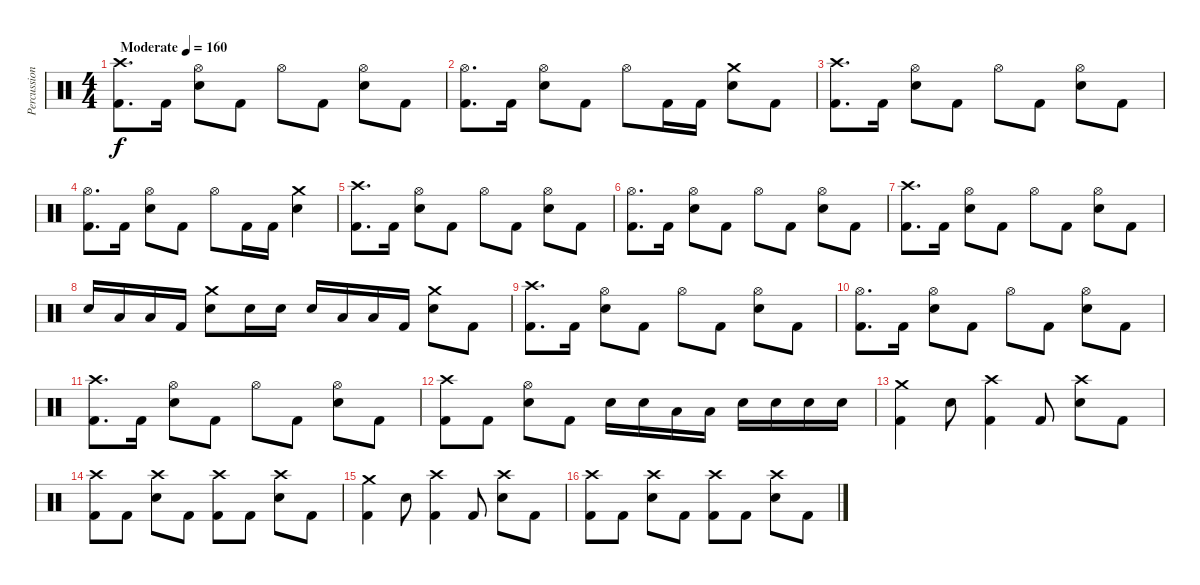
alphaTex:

\track ("Percussion" "Percussion") {instrument percussion}
\staff {score}
\articulation defaults
\ts (4 4)
\tempo (160 "Moderate")
\clef neutral
\ks c
("Crash high (hit)" "Kick (hit) 2").8{d dy f volume 8} "Kick (hit) 2".16 ("Hi-Hat (open)" "Electric Snare (hit)").8 "Kick (hit) 2".8 "Hi-Hat (open)".8 "Kick (hit) 2".8 ("Hi-Hat (open)" "Electric Snare (hit)").8 "Kick (hit) 2".8 |
("Hi-Hat (open)" "Kick (hit) 2").8{d} "Kick (hit) 2".16 ("Hi-Hat (open)" "Electric Snare (hit)").8 "Kick (hit) 2".8 "Hi-Hat (open)".8 "Kick (hit) 2".16 "Kick (hit) 2".16 ("Crash medium (hit)" "Electric Snare (hit)").8 "Kick (hit) 2".8 |
("Crash high (hit)" "Kick (hit) 2").8{d} "Kick (hit) 2".16 ("Hi-Hat (open)" "Electric Snare (hit)").8 "Kick (hit) 2".8 "Hi-Hat (open)".8 "Kick (hit) 2".8 ("Hi-Hat (open)" "Electric Snare (hit)").8 "Kick (hit) 2".8 |
("Hi-Hat (open)" "Kick (hit) 2").8{d} "Kick (hit) 2".16 ("Hi-Hat (open)" "Electric Snare (hit)").8 "Kick (hit) 2".8 "Hi-Hat (open)".8 "Kick (hit) 2".16 "Kick (hit) 2".16 ("Crash medium (hit)" "Electric Snare (hit)").4 |
("Crash high (hit)" "Kick (hit) 2").8{d volume 13} "Kick (hit) 2".16 ("Hi-Hat (open)" "Electric Snare (hit)").8 "Kick (hit) 2".8 "Hi-Hat (open)".8 "Kick (hit) 2".8 ("Hi-Hat (open)" "Electric Snare (hit)").8 "Kick (hit) 2".8 |
("Hi-Hat (open)" "Kick (hit) 2").8{d} "Kick (hit) 2".16 ("Hi-Hat (open)" "Electric Snare (hit)").8 "Kick (hit) 2".8 "Hi-Hat (open)".8 "Kick (hit) 2".8 ("Hi-Hat (open)" "Electric Snare (hit)").8 "Kick (hit) 2".8 |
("Crash high (hit)" "Kick (hit) 2").8{d} "Kick (hit) 2".16 ("Hi-Hat (open)" "Electric Snare (hit)").8 "Kick (hit) 2".8 "Hi-Hat (open)".8 "Kick (hit) 2".8 ("Hi-Hat (open)" "Electric Snare (hit)").8 "Kick (hit) 2".8 |
"Electric Snare (hit)".16 "Low Tom (hit)".16 "Low Floor Tom (hit)".16 "Kick (hit) 2".16 ("Crash medium (hit)" "Electric Snare (hit)").8 "Electric Snare (hit)".16 "Electric Snare (hit)".16 "Electric Snare (hit)".16 "Low Tom (hit)".16 "Low Floor Tom (hit)".16 "Kick (hit) 2".16 ("Crash medium (hit)" "Electric Snare (hit)").8 "Kick (hit) 2".8 |
("Crash high (hit)" "Kick (hit) 2").8{d} "Kick (hit) 2".16 ("Hi-Hat (open)" "Electric Snare (hit)").8 "Kick (hit) 2".8 "Hi-Hat (open)".8 "Kick (hit) 2".8 ("Hi-Hat (open)" "Electric Snare (hit)").8 "Kick (hit) 2".8 |
("Hi-Hat (open)" "Kick (hit) 2").8{d} "Kick (hit) 2".16 ("Hi-Hat (open)" "Electric Snare (hit)").8 "Kick (hit) 2".8 "Hi-Hat (open)".8 "Kick (hit) 2".8 ("Hi-Hat (open)" "Electric Snare (hit)").8 "Kick (hit) 2".8 |
("Crash high (hit)" "Kick (hit) 2").8{d} "Kick (hit) 2".16 ("Hi-Hat (open)" "Electric Snare (hit)").8 "Kick (hit) 2".8 "Hi-Hat (open)".8 "Kick (hit) 2".8 ("Hi-Hat (open)" "Electric Snare (hit)").8 "Kick (hit) 2".8 |
("Crash high (hit)" "Kick (hit) 2").8 "Kick (hit) 2".8 ("Hi-Hat (open)" "Electric Snare (hit)").8 "Kick (hit) 2".8 "Electric Snare (hit)".16 "Electric Snare (hit)".16 "Low Tom (hit)".16 "Low Floor Tom (hit)".16 "Electric Snare (hit)".16 "Electric Snare (hit)".16 "Electric Snare (hit)".16 "Electric Snare (hit)".16 |
("Crash medium (hit)" "Kick (hit) 2").4 "Electric Snare (hit)".8 ("Crash high (hit)" "Kick (hit) 2").4 "Kick (hit) 2".8 ("Crash high (hit)" "Electric Snare (hit)").8 "Kick (hit) 2".8 |
("Crash high (hit)" "Kick (hit) 2").8 "Kick (hit) 2".8 ("Crash high (hit)" "Electric Snare (hit)").8 "Kick (hit) 2".8 ("Crash high (hit)" "Kick (hit) 2").8 "Kick (hit) 2".8 ("Crash high (hit)" "Electric Snare (hit)").8 "Kick (hit) 2".8 |
("Crash medium (hit)" "Kick (hit) 2").4 "Electric Snare (hit)".8 ("Crash high (hit)" "Kick (hit) 2").4 "Kick (hit) 2".8 ("Crash high (hit)" "Electric Snare (hit)").8 "Kick (hit) 2".8 |
("Crash high (hit)" "Kick (hit) 2").8 "Kick (hit) 2".8 ("Crash high (hit)" "Electric Snare (hit)").8 "Kick (hit) 2".8 ("Crash high (hit)" "Kick (hit) 2").8 "Kick (hit) 2".8 ("Crash high (hit)" "Electric Snare (hit)").8 "Kick (hit) 2".8
